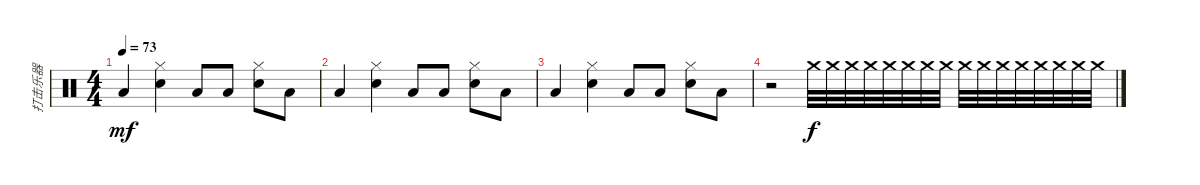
\track ("打击乐器" "打击乐器") {instrument percussion}
\staff {score}
\articulation defaults
\ts (4 4)
\tempo 73
\clef neutral
\ks c "Low Floor Tom (hit)".4{dy mf}
("Hi-Hat (closed)" "Electric Snare (hit)").4 "Low Floor Tom (hit)".8 "Low Floor Tom (hit)".8 ("Hi-Hat (closed)" "Electric Snare (hit)").8 "Low Floor Tom (hit)".8 |
"Low Floor Tom (hit)".4 ("Hi-Hat (closed)" "Electric Snare (hit)").4 "Low Floor Tom (hit)".8 "Low Floor Tom (hit)".8 ("Hi-Hat (closed)" "Electric Snare (hit)").8 "Low Floor Tom (hit)".8 |
"Low Floor Tom (hit)".4 ("Hi-Hat (closed)" "Electric Snare (hit)").4 "Low Floor Tom (hit)".8 "Low Floor Tom (hit)".8 ("Hi-Hat (closed)" "Electric Snare (hit)").8 "Low Floor Tom (hit)".8 |
r.2 "Crash medium (hit)".32{dy f} "Crash medium (hit)".32 "Crash medium (hit)".32 "Crash medium (hit)".32 "Crash medium (hit)".32 "Crash medium (hit)".32 "Crash medium (hit)".32 "Crash medium (hit)".32 "Crash medium (hit)".32 "Crash medium (hit)".32 "Crash medium (hit)".32 "Crash medium (hit)".32 "Crash medium (hit)".32 "Crash medium (hit)".32 "Crash medium (hit)".32 "Crash medium (hit)".32
